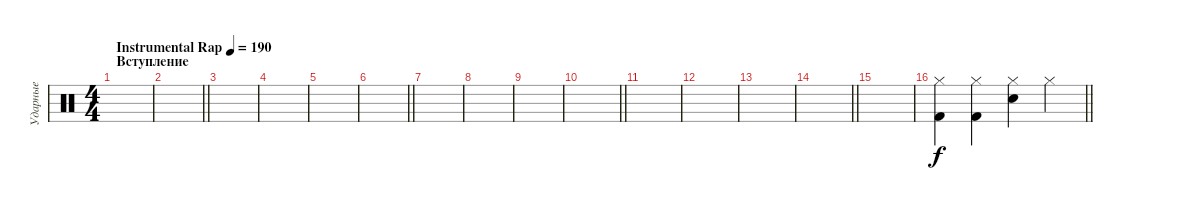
\track ("Ударные" "Ударные") {instrument percussion}
\staff {score}
\articulation defaults
\ts (4 4)
\section ("" "Вступление")
\tempo (190 "Instrumental Rap")
\clef neutral
\ks c
|
\barLineRight lightlight
|
|
|
|
\barLineRight lightlight
|
|
|
|
\barLineRight lightlight
|
|
|
|
\barLineRight lightlight
|
|
\barLineRight lightlight
("Kick (hit) 2" "Hi-Hat (closed)").4 ("Kick (hit) 2" "Hi-Hat (closed)").4 ("Hand Clap (hit)" "Hi-Hat (closed)").4 "Hi-Hat (closed)".4
